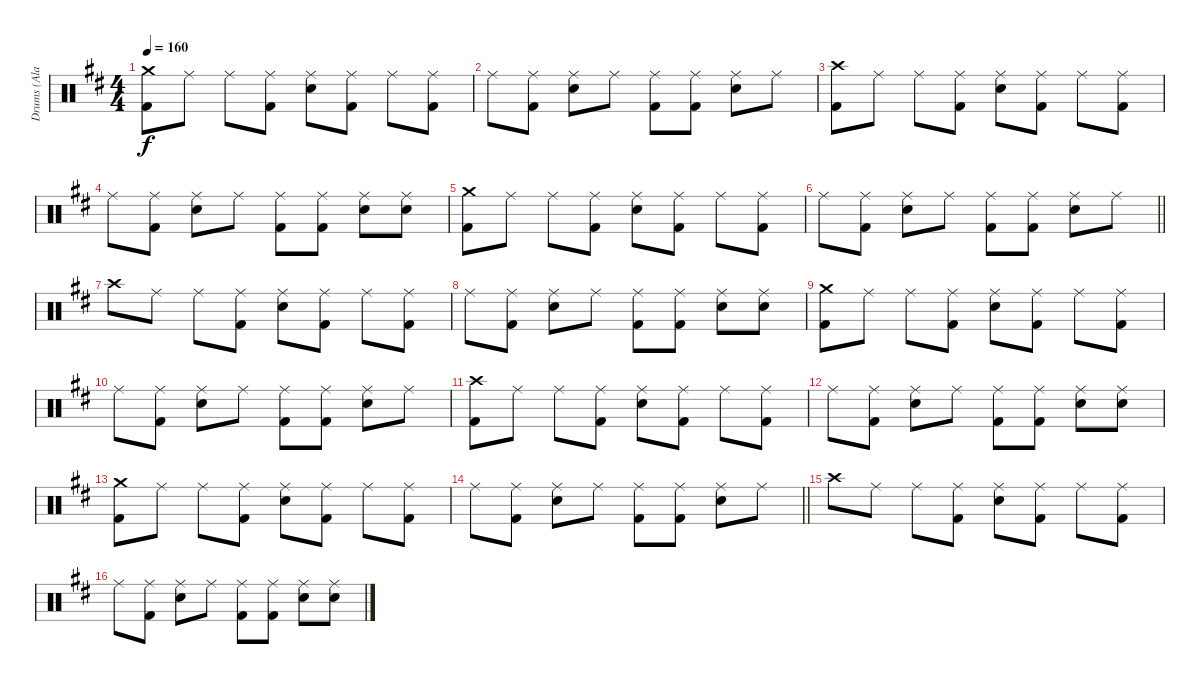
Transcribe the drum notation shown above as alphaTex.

\track ("Drums (Ala Burns)" "Drums (Ala") {instrument percussion}
\staff {score}
\articulation defaults
\ts (4 4)
\tempo 160
\clef neutral
\ks d
("Crash medium (hit)" "Kick (hit) 2").8{dy f} "Ride (middle)".8 "Ride (middle)".8 ("Ride (middle)" "Kick (hit) 2").8 ("Ride (middle)" "Snare (hit) 2").8 ("Ride (middle)" "Kick (hit) 2").8 "Ride (middle)".8 ("Ride (middle)" "Kick (hit) 2").8 |
"Ride (middle)".8 ("Ride (middle)" "Kick (hit) 2").8 ("Ride (middle)" "Snare (hit) 2").8 "Ride (middle)".8 ("Ride (middle)" "Kick (hit) 2").8 ("Ride (middle)" "Kick (hit) 2").8 ("Ride (middle)" "Snare (hit) 2").8 "Ride (middle)".8 |
("Crash high (hit)" "Kick (hit) 2").8 "Ride (middle)".8 "Ride (middle)".8 ("Ride (middle)" "Kick (hit) 2").8 ("Ride (middle)" "Snare (hit) 2").8 ("Ride (middle)" "Kick (hit) 2").8 "Ride (middle)".8 ("Ride (middle)" "Kick (hit) 2").8 |
"Ride (middle)".8 ("Ride (middle)" "Kick (hit) 2").8 ("Ride (middle)" "Snare (hit) 2").8 "Ride (middle)".8 ("Ride (middle)" "Kick (hit) 2").8 ("Ride (middle)" "Kick (hit) 2").8 ("Ride (middle)" "Snare (hit) 2").8 ("Ride (middle)" "Snare (hit) 2").8 |
("Crash medium (hit)" "Kick (hit) 2").8 "Ride (middle)".8 "Ride (middle)".8 ("Ride (middle)" "Kick (hit) 2").8 ("Ride (middle)" "Snare (hit) 2").8 ("Ride (middle)" "Kick (hit) 2").8 "Ride (middle)".8 ("Ride (middle)" "Kick (hit) 2").8 |
\barLineRight lightlight "Ride (middle)".8
("Ride (middle)" "Kick (hit) 2").8 ("Ride (middle)" "Snare (hit) 2").8 "Ride (middle)".8 ("Ride (middle)" "Kick (hit) 2").8 ("Ride (middle)" "Kick (hit) 2").8 ("Ride (middle)" "Snare (hit) 2").8 "Ride (middle)".8 |
"Crash high (hit)".8 "Ride (middle)".8 "Ride (middle)".8 ("Ride (middle)" "Kick (hit) 2").8 ("Ride (middle)" "Snare (hit) 2").8 ("Ride (middle)" "Kick (hit) 2").8 "Ride (middle)".8 ("Ride (middle)" "Kick (hit) 2").8 |
"Ride (middle)".8 ("Ride (middle)" "Kick (hit) 2").8 ("Ride (middle)" "Snare (hit) 2").8 "Ride (middle)".8 ("Ride (middle)" "Kick (hit) 2").8 ("Ride (middle)" "Kick (hit) 2").8 ("Ride (middle)" "Snare (hit) 2").8 ("Ride (middle)" "Snare (hit) 2").8 |
("Crash medium (hit)" "Kick (hit) 2").8 "Ride (middle)".8 "Ride (middle)".8 ("Ride (middle)" "Kick (hit) 2").8 ("Ride (middle)" "Snare (hit) 2").8 ("Ride (middle)" "Kick (hit) 2").8 "Ride (middle)".8 ("Ride (middle)" "Kick (hit) 2").8 |
"Ride (middle)".8 ("Ride (middle)" "Kick (hit) 2").8 ("Ride (middle)" "Snare (hit) 2").8 "Ride (middle)".8 ("Ride (middle)" "Kick (hit) 2").8 ("Ride (middle)" "Kick (hit) 2").8 ("Ride (middle)" "Snare (hit) 2").8 "Ride (middle)".8 |
("Crash high (hit)" "Kick (hit) 2").8 "Ride (middle)".8 "Ride (middle)".8 ("Ride (middle)" "Kick (hit) 2").8 ("Ride (middle)" "Snare (hit) 2").8 ("Ride (middle)" "Kick (hit) 2").8 "Ride (middle)".8 ("Ride (middle)" "Kick (hit) 2").8 |
"Ride (middle)".8 ("Ride (middle)" "Kick (hit) 2").8 ("Ride (middle)" "Snare (hit) 2").8 "Ride (middle)".8 ("Ride (middle)" "Kick (hit) 2").8 ("Ride (middle)" "Kick (hit) 2").8 ("Ride (middle)" "Snare (hit) 2").8 ("Ride (middle)" "Snare (hit) 2").8 |
("Crash medium (hit)" "Kick (hit) 2").8 "Ride (middle)".8 "Ride (middle)".8 ("Ride (middle)" "Kick (hit) 2").8 ("Ride (middle)" "Snare (hit) 2").8 ("Ride (middle)" "Kick (hit) 2").8 "Ride (middle)".8 ("Ride (middle)" "Kick (hit) 2").8 |
\barLineRight lightlight "Ride (middle)".8
("Ride (middle)" "Kick (hit) 2").8 ("Ride (middle)" "Snare (hit) 2").8 "Ride (middle)".8 ("Ride (middle)" "Kick (hit) 2").8 ("Ride (middle)" "Kick (hit) 2").8 ("Ride (middle)" "Snare (hit) 2").8 "Ride (middle)".8 |
"Crash high (hit)".8 "Ride (middle)".8 "Ride (middle)".8 ("Ride (middle)" "Kick (hit) 2").8 ("Ride (middle)" "Snare (hit) 2").8 ("Ride (middle)" "Kick (hit) 2").8 "Ride (middle)".8 ("Ride (middle)" "Kick (hit) 2").8 |
"Ride (middle)".8 ("Ride (middle)" "Kick (hit) 2").8 ("Ride (middle)" "Snare (hit) 2").8 "Ride (middle)".8 ("Ride (middle)" "Kick (hit) 2").8 ("Ride (middle)" "Kick (hit) 2").8 ("Ride (middle)" "Snare (hit) 2").8 ("Ride (middle)" "Snare (hit) 2").8
